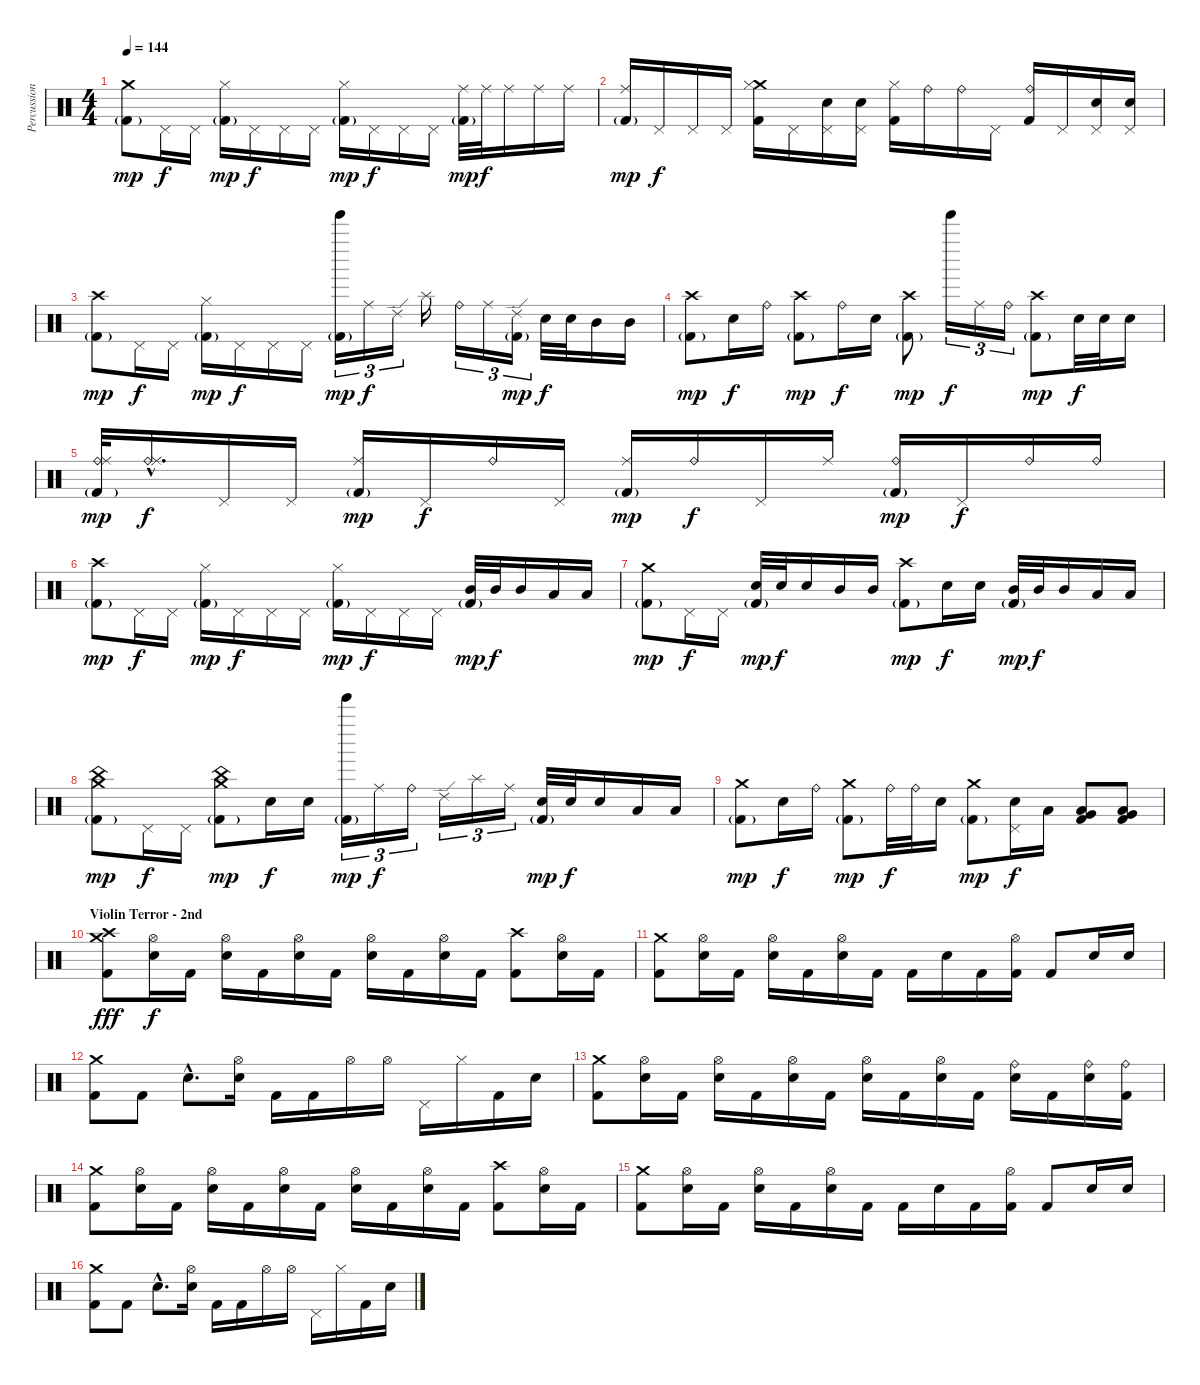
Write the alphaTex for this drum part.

\track ("Percussion" "Percussion") {instrument percussion}
\staff {score}
\articulation defaults
\ts (4 4)
\tempo 144
\clef neutral
\ks c
("Crash medium (hit)" "Kick (hit) 2"{g}).8{dy mp} "Pedal Hi-Hat (hit)".16{dy f} "Pedal Hi-Hat (hit)".16 ("Hi-Hat (closed)" "Kick (hit) 2"{g}).16{dy mp} "Pedal Hi-Hat (hit)".16{dy f} "Pedal Hi-Hat (hit)".16 "Pedal Hi-Hat (hit)".16 ("Hi-Hat (closed)" "Kick (hit) 2"{g}).16{dy mp} "Pedal Hi-Hat (hit)".16{dy f} "Pedal Hi-Hat (hit)".16 "Pedal Hi-Hat (hit)".16 ("Ride (middle)" "Kick (hit) 2"{g}).32{dy mp} "Ride (middle)".32{dy f} "Ride (middle)".16 "Ride (middle)".16 "Ride (middle)".16 |
("Ride (middle)" "Kick (hit) 2"{g}).16{dy mp} "Pedal Hi-Hat (hit)".16{dy f} "Pedal Hi-Hat (hit)".16 "Pedal Hi-Hat (hit)".16 ("Crash medium (hit)" "Hi-Hat (closed)" "Kick (hit) 2").16 "Pedal Hi-Hat (hit)".16 ("Pedal Hi-Hat (hit)" "Electric Snare (hit)").16 ("Pedal Hi-Hat (hit)" "Electric Snare (hit)").16 ("Hi-Hat (closed)" "Kick (hit) 2").16 "Ride (bell)".16 "Ride (bell)".16 "Pedal Hi-Hat (hit)".16 ("Ride (bell)" "Kick (hit) 2").16 "Pedal Hi-Hat (hit)".16 ("Pedal Hi-Hat (hit)" "Electric Snare (hit)").16 ("Pedal Hi-Hat (hit)" "Electric Snare (hit)").16 |
("Crash high (hit)" "Kick (hit) 2"{g}).8{dy mp} "Pedal Hi-Hat (hit)".16{dy f} "Pedal Hi-Hat (hit)".16 ("Hi-Hat (closed)" "Kick (hit) 2"{g}).16{dy mp} "Pedal Hi-Hat (hit)".16{dy f} "Pedal Hi-Hat (hit)".16 "Pedal Hi-Hat (hit)".16 ("Tinkle Bell (hit)" "Kick (hit) 2"{g}).16{tu (3 2) dy mp} "Ride (middle)".16{tu (3 2) dy f} "Ride (edge) 2".16{tu (3 2)} "Splash (hit)".16 "Ride (bell)".16{tu (3 2)} "Ride (middle)".16{tu (3 2)} ("Ride (edge) 2" "Kick (hit) 2"{g}).16{tu (3 2) dy mp} "Electric Snare (hit)".32{dy f} "Electric Snare (hit)".32 "Mid Tom (hit)".16 "Mid Tom (hit)".16 |
("Crash high (hit)" "Kick (hit) 2"{g}).8{dy mp} "Electric Snare (hit)".16{dy f} "Ride (bell)".16 ("Crash high (hit)" "Kick (hit) 2"{g}).8{dy mp} "Ride (bell)".16{dy f} "Electric Snare (hit)".16 ("Crash high (hit)" "Kick (hit) 2"{g}).8{dy mp} "Tinkle Bell (hit)".16{tu (3 2) dy f} "Ride (middle)".16{tu (3 2)} "Ride (bell)".16{tu (3 2)} ("Crash high (hit)" "Kick (hit) 2"{g}).8{dy mp} "Electric Snare (hit)".32{dy f} "Electric Snare (hit)".32 "Electric Snare (hit)".16 |
("Ride (bell)" "Ride (middle)" "Kick (hit) 2"{g}).32{dy mp} ("Ride (bell)"{hac} "Ride (middle)"{hac}).16{d dy f} "Pedal Hi-Hat (hit)".16 "Pedal Hi-Hat (hit)".16 ("Ride (middle)" "Kick (hit) 2"{g}).16{dy mp} "Pedal Hi-Hat (hit)".16{dy f} "Ride (bell)".16 "Pedal Hi-Hat (hit)".16 ("Ride (middle)" "Kick (hit) 2"{g}).16{dy mp} "Ride (bell)".16{dy f} "Pedal Hi-Hat (hit)".16 "Ride (middle)".16 ("Ride (bell)" "Kick (hit) 2"{g}).16{dy mp} "Pedal Hi-Hat (hit)".16{dy f} "Ride (bell)".16 "Ride (bell)".16 |
("Crash high (hit)" "Kick (hit) 2"{g}).8{dy mp} "Pedal Hi-Hat (hit)".16{dy f} "Pedal Hi-Hat (hit)".16 ("Hi-Hat (closed)" "Kick (hit) 2"{g}).16{dy mp} "Pedal Hi-Hat (hit)".16{dy f} "Pedal Hi-Hat (hit)".16 "Pedal Hi-Hat (hit)".16 ("Hi-Hat (closed)" "Kick (hit) 2"{g}).16{dy mp} "Pedal Hi-Hat (hit)".16{dy f} "Pedal Hi-Hat (hit)".16 "Pedal Hi-Hat (hit)".16 ("Mid Tom (hit)" "Kick (hit) 2"{g}).32{dy mp} "Mid Tom (hit)".32{dy f} "Mid Tom (hit)".16 "Low Tom (hit)".16 "Low Tom (hit)".16 |
("Crash medium (hit)" "Kick (hit) 2"{g}).8{dy mp} "Pedal Hi-Hat (hit)".16{dy f} "Pedal Hi-Hat (hit)".16 ("Electric Snare (hit)" "Kick (hit) 2"{g}).32{dy mp} "Electric Snare (hit)".32{dy f} "Electric Snare (hit)".16 "Mid Tom (hit)".16 "Mid Tom (hit)".16 ("Crash high (hit)" "Kick (hit) 2"{g}).8{dy mp} "Electric Snare (hit)".16{dy f} "Electric Snare (hit)".16 ("Mid Tom (hit)" "Kick (hit) 2"{g}).32{dy mp} "Mid Tom (hit)".32{dy f} "Mid Tom (hit)".16 "Low Tom (hit)".16 "Low Tom (hit)".16 |
("China (hit)" "Crash medium (hit)" "Kick (hit) 2"{g}).8{dy mp} "Pedal Hi-Hat (hit)".16{dy f} "Pedal Hi-Hat (hit)".16 ("China (hit)" "Crash medium (hit)" "Kick (hit) 2"{g}).8{dy mp} "Electric Snare (hit)".16{dy f} "Electric Snare (hit)".16 ("Tinkle Bell (hit)" "Kick (hit) 2"{g}).16{tu (3 2) dy mp} "Ride (middle)".16{tu (3 2) dy f} "Ride (bell)".16{tu (3 2)} "Ride (edge) 2".16{tu (3 2)} "Splash (hit)".16{tu (3 2)} "Ride (middle)".16{tu (3 2)} ("Electric Snare (hit)" "Kick (hit) 2"{g}).32{dy mp} "Electric Snare (hit)".32{dy f} "Electric Snare (hit)".16 "Low Tom (hit)".16 "Low Tom (hit)".16 |
("Crash medium (hit)" "Kick (hit) 2"{g}).8{dy mp} "Electric Snare (hit)".16{dy f} "Ride (bell)".16 ("Crash medium (hit)" "Kick (hit) 2"{g}).8{dy mp} "Ride (bell)".32{dy f} "Ride (bell)".32 "Electric Snare (hit)".16 ("Crash medium (hit)" "Kick (hit) 2"{g}).8{dy mp} ("Pedal Hi-Hat (hit)" "Electric Snare (hit)").16{dy f} "Low Tom (hit)".16 ("Very Low Tom (hit)" "Low Tom (hit)" "Kick (hit) 2").8 ("Very Low Tom (hit)" "Low Tom (hit)" "Kick (hit) 2").8 |
\section ("" "Violin Terror - 2nd")
("Crash medium (hit)" "Crash high (hit)" "Kick (hit) 2").8{dy fff} ("Hi-Hat (open)" "Electric Snare (hit)").16{dy f} "Kick (hit) 2".16 ("Hi-Hat (open)" "Electric Snare (hit)").16 "Kick (hit) 2".16 ("Hi-Hat (open)" "Electric Snare (hit)").16 "Kick (hit) 2".16 ("Hi-Hat (open)" "Electric Snare (hit)").16 "Kick (hit) 2".16 ("Hi-Hat (open)" "Electric Snare (hit)").16 "Kick (hit) 2".16 ("Crash high (hit)" "Kick (hit) 2").8 ("Hi-Hat (open)" "Electric Snare (hit)").16 "Kick (hit) 2".16 |
("Crash medium (hit)" "Kick (hit) 2").8 ("Hi-Hat (open)" "Electric Snare (hit)").16 "Kick (hit) 2".16 ("Hi-Hat (open)" "Electric Snare (hit)").16 "Kick (hit) 2".16 ("Hi-Hat (open)" "Electric Snare (hit)").16 "Kick (hit) 2".16 "Kick (hit) 2".16 "Electric Snare (hit)".16 "Kick (hit) 2".16 ("Hi-Hat (open)" "Kick (hit) 2").16 "Kick (hit) 2".8 "Electric Snare (hit)".16 "Electric Snare (hit)".16 |
("Crash medium (hit)" "Kick (hit) 2").8 "Kick (hit) 2".8 "Electric Snare (hit)"{hac}.8{d} ("Hi-Hat (open)" "Electric Snare (hit)").16 "Kick (hit) 2".16 "Kick (hit) 2".16 "Hi-Hat (open)".16 "Hi-Hat (open)".16 "Pedal Hi-Hat (hit)".16 "Hi-Hat (closed)".16 "Kick (hit) 2".16 "Electric Snare (hit)".16 |
("Crash medium (hit)" "Kick (hit) 2").8 ("Hi-Hat (open)" "Electric Snare (hit)").16 "Kick (hit) 2".16 ("Hi-Hat (open)" "Electric Snare (hit)").16 "Kick (hit) 2".16 ("Hi-Hat (open)" "Electric Snare (hit)").16 "Kick (hit) 2".16 ("Hi-Hat (open)" "Electric Snare (hit)").16 "Kick (hit) 2".16 ("Hi-Hat (open)" "Electric Snare (hit)").16 "Kick (hit) 2".16 ("Ride (bell)" "Electric Snare (hit)").16 "Kick (hit) 2".16 ("Ride (bell)" "Electric Snare (hit)").16 ("Ride (bell)" "Kick (hit) 2").16 |
("Crash medium (hit)" "Kick (hit) 2").8 ("Hi-Hat (open)" "Electric Snare (hit)").16 "Kick (hit) 2".16 ("Hi-Hat (open)" "Electric Snare (hit)").16 "Kick (hit) 2".16 ("Hi-Hat (open)" "Electric Snare (hit)").16 "Kick (hit) 2".16 ("Hi-Hat (open)" "Electric Snare (hit)").16 "Kick (hit) 2".16 ("Hi-Hat (open)" "Electric Snare (hit)").16 "Kick (hit) 2".16 ("Crash high (hit)" "Kick (hit) 2").8 ("Hi-Hat (open)" "Electric Snare (hit)").16 "Kick (hit) 2".16 |
("Crash medium (hit)" "Kick (hit) 2").8 ("Hi-Hat (open)" "Electric Snare (hit)").16 "Kick (hit) 2".16 ("Hi-Hat (open)" "Electric Snare (hit)").16 "Kick (hit) 2".16 ("Hi-Hat (open)" "Electric Snare (hit)").16 "Kick (hit) 2".16 "Kick (hit) 2".16 "Electric Snare (hit)".16 "Kick (hit) 2".16 ("Hi-Hat (open)" "Kick (hit) 2").16 "Kick (hit) 2".8 "Electric Snare (hit)".16 "Electric Snare (hit)".16 |
("Crash medium (hit)" "Kick (hit) 2").8 "Kick (hit) 2".8 "Electric Snare (hit)"{hac}.8{d} ("Hi-Hat (open)" "Electric Snare (hit)").16 "Kick (hit) 2".16 "Kick (hit) 2".16 "Hi-Hat (open)".16 "Hi-Hat (open)".16 "Pedal Hi-Hat (hit)".16 "Hi-Hat (closed)".16 "Kick (hit) 2".16 "Electric Snare (hit)".16
